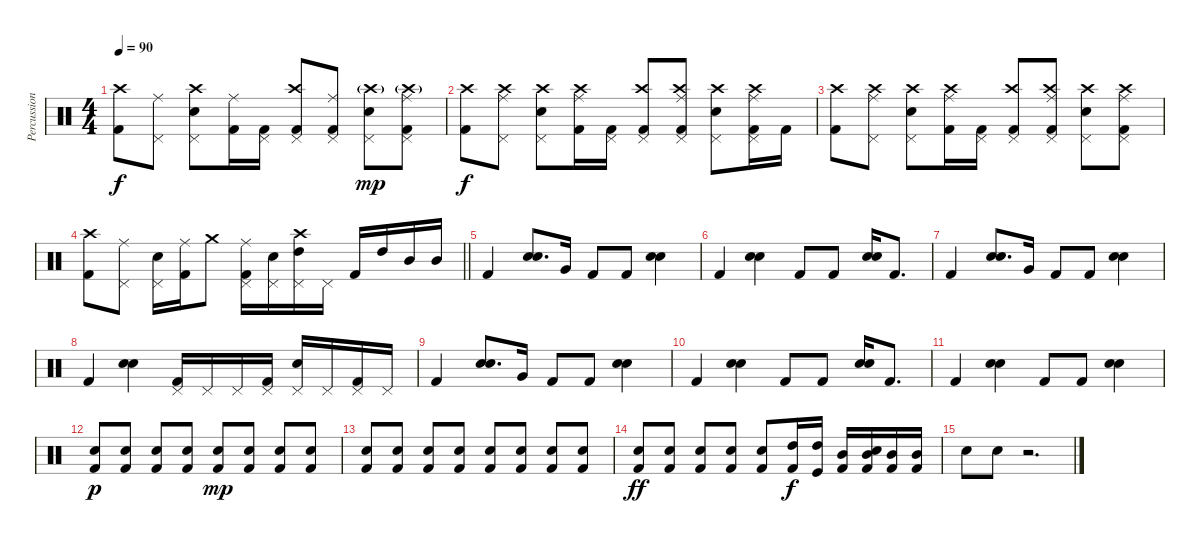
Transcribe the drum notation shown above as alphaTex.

\track ("Percussion" "Percussion") {instrument percussion}
\staff {score}
\articulation defaults
\ts (4 4)
\tempo 90
\clef neutral
\ks c
("Kick (hit) 2" "Crash high (hit)").8{dy f} ("Pedal Hi-Hat (hit)" "Ride (middle)").8 ("Snare (hit) 2" "Pedal Hi-Hat (hit)" "Crash high (hit)").8 ("Kick (hit) 2" "Ride (middle)").16 ("Kick (hit) 2" "Pedal Hi-Hat (hit)").16 ("Kick (hit) 2" "Pedal Hi-Hat (hit)" "Crash high (hit)").8 ("Kick (hit) 2" "Pedal Hi-Hat (hit)" "Ride (middle)").8 ("Snare (hit) 2" "Pedal Hi-Hat (hit)" "Crash high (hit)"{g}).8{dy mp} ("Kick (hit) 2" "Pedal Hi-Hat (hit)" "Crash high (hit)"{g} "Ride (middle)").8 |
("Kick (hit) 2" "Crash high (hit)").8{dy f} ("Pedal Hi-Hat (hit)" "Crash high (hit)" "Ride (middle)").8 ("Snare (hit) 2" "Pedal Hi-Hat (hit)" "Crash high (hit)").8 ("Kick (hit) 2" "Crash high (hit)" "Ride (middle)").16 ("Kick (hit) 2" "Pedal Hi-Hat (hit)").16 ("Kick (hit) 2" "Pedal Hi-Hat (hit)" "Crash high (hit)").8 ("Kick (hit) 2" "Pedal Hi-Hat (hit)" "Crash high (hit)" "Ride (middle)").8 ("Snare (hit) 2" "Pedal Hi-Hat (hit)" "Crash high (hit)").8 ("Kick (hit) 2" "Pedal Hi-Hat (hit)" "Crash high (hit)" "Ride (middle)").16 "Kick (hit) 2".16 |
("Kick (hit) 2" "Crash high (hit)").8 ("Pedal Hi-Hat (hit)" "Crash high (hit)" "Ride (middle)").8 ("Snare (hit) 2" "Pedal Hi-Hat (hit)" "Crash high (hit)").8 ("Kick (hit) 2" "Crash high (hit)" "Ride (middle)").16 ("Kick (hit) 2" "Pedal Hi-Hat (hit)").16 ("Kick (hit) 2" "Pedal Hi-Hat (hit)" "Crash high (hit)").8 ("Kick (hit) 2" "Pedal Hi-Hat (hit)" "Crash high (hit)" "Ride (middle)").8 ("Snare (hit) 2" "Pedal Hi-Hat (hit)" "Crash high (hit)").8 ("Kick (hit) 2" "Pedal Hi-Hat (hit)" "Crash high (hit)" "Ride (middle)").8 |
\barLineRight lightlight
("Kick (hit) 2" "Crash high (hit)").8 ("Pedal Hi-Hat (hit)" "Ride (middle)").8 ("Snare (hit) 2" "Pedal Hi-Hat (hit)").16 ("Kick (hit) 2" "Ride (middle)").16 "Crash medium (hit)".8 ("Kick (hit) 2" "Pedal Hi-Hat (hit)" "Ride (middle)").16 ("Snare (hit) 2" "Pedal Hi-Hat (hit)").16 ("High Tom (hit)" "Pedal Hi-Hat (hit)" "Crash high (hit)").16 "Pedal Hi-Hat (hit)".16 "Kick (hit) 2".16 "High Tom (hit)".16 "Mid Tom (hit)".16 "Mid Tom (hit)".16 |
"Kick (hit) 2".4 ("Hand Clap (hit)" "Snare (hit) 2").8{d} "Very Low Tom (hit)".16 "Kick (hit) 2".8 "Kick (hit) 2".8 ("Hand Clap (hit)" "Snare (hit) 2").4 |
"Kick (hit) 2".4 ("Hand Clap (hit)" "Snare (hit) 2").4 "Kick (hit) 2".8 "Kick (hit) 2".8 ("Hand Clap (hit)" "Snare (hit) 2").16 "Kick (hit) 2".8{d} |
"Kick (hit) 2".4 ("Hand Clap (hit)" "Snare (hit) 2").8{d} "Very Low Tom (hit)".16 "Kick (hit) 2".8 "Kick (hit) 2".8 ("Hand Clap (hit)" "Snare (hit) 2").4 |
"Kick (hit) 2".4 ("Hand Clap (hit)" "Snare (hit) 2").4 ("Kick (hit) 2" "Pedal Hi-Hat (hit)").16 "Pedal Hi-Hat (hit)".16 "Pedal Hi-Hat (hit)".16 ("Kick (hit) 2" "Pedal Hi-Hat (hit)").16 ("Snare (hit) 2" "Pedal Hi-Hat (hit)").16 "Pedal Hi-Hat (hit)".16 ("Kick (hit) 2" "Pedal Hi-Hat (hit)").16 "Pedal Hi-Hat (hit)".16 |
"Kick (hit) 2".4 ("Hand Clap (hit)" "Snare (hit) 2").8{d} "Very Low Tom (hit)".16 "Kick (hit) 2".8 "Kick (hit) 2".8 ("Hand Clap (hit)" "Snare (hit) 2").4 |
"Kick (hit) 2".4 ("Hand Clap (hit)" "Snare (hit) 2").4 "Kick (hit) 2".8 "Kick (hit) 2".8 ("Hand Clap (hit)" "Snare (hit) 2").16 "Kick (hit) 2".8{d} |
"Kick (hit) 2".4 ("Hand Clap (hit)" "Snare (hit) 2").4 "Kick (hit) 2".8 "Kick (hit) 2".8 ("Hand Clap (hit)" "Snare (hit) 2").4 |
("Kick (hit) 2" "Snare (hit) 2").8{dy p} ("Kick (hit) 2" "Snare (hit) 2").8 ("Kick (hit) 2" "Snare (hit) 2").8 ("Kick (hit) 2" "Snare (hit) 2").8 ("Kick (hit) 2" "Snare (hit) 2").8{dy mp} ("Kick (hit) 2" "Snare (hit) 2").8 ("Kick (hit) 2" "Snare (hit) 2").8 ("Kick (hit) 2" "Snare (hit) 2").8 |
("Kick (hit) 2" "Snare (hit) 2").8 ("Kick (hit) 2" "Snare (hit) 2").8 ("Kick (hit) 2" "Snare (hit) 2").8 ("Kick (hit) 2" "Snare (hit) 2").8 ("Kick (hit) 2" "Snare (hit) 2").8 ("Kick (hit) 2" "Snare (hit) 2").8 ("Kick (hit) 2" "Snare (hit) 2").8 ("Kick (hit) 2" "Snare (hit) 2").8 |
("Kick (hit) 2" "Snare (hit) 2").8{dy ff} ("Kick (hit) 2" "Snare (hit) 2").8 ("Kick (hit) 2" "Snare (hit) 2").8 ("Kick (hit) 2" "Snare (hit) 2").8 ("Kick (hit) 2" "Snare (hit) 2").8 ("Kick (hit) 2" "High Tom (hit)").16{dy f} ("Kick (hit)" "High Tom (hit)").16 ("Kick (hit) 2" "Mid Tom (hit)").16 ("Kick (hit) 2" "Snare (hit) 2" "Mid Tom (hit)").16 ("Kick (hit) 2" "Mid Tom (hit)").16 ("Kick (hit) 2" "Mid Tom (hit)").16 |
"Snare (hit) 2".8 "Snare (hit) 2".8 r.2{d}
